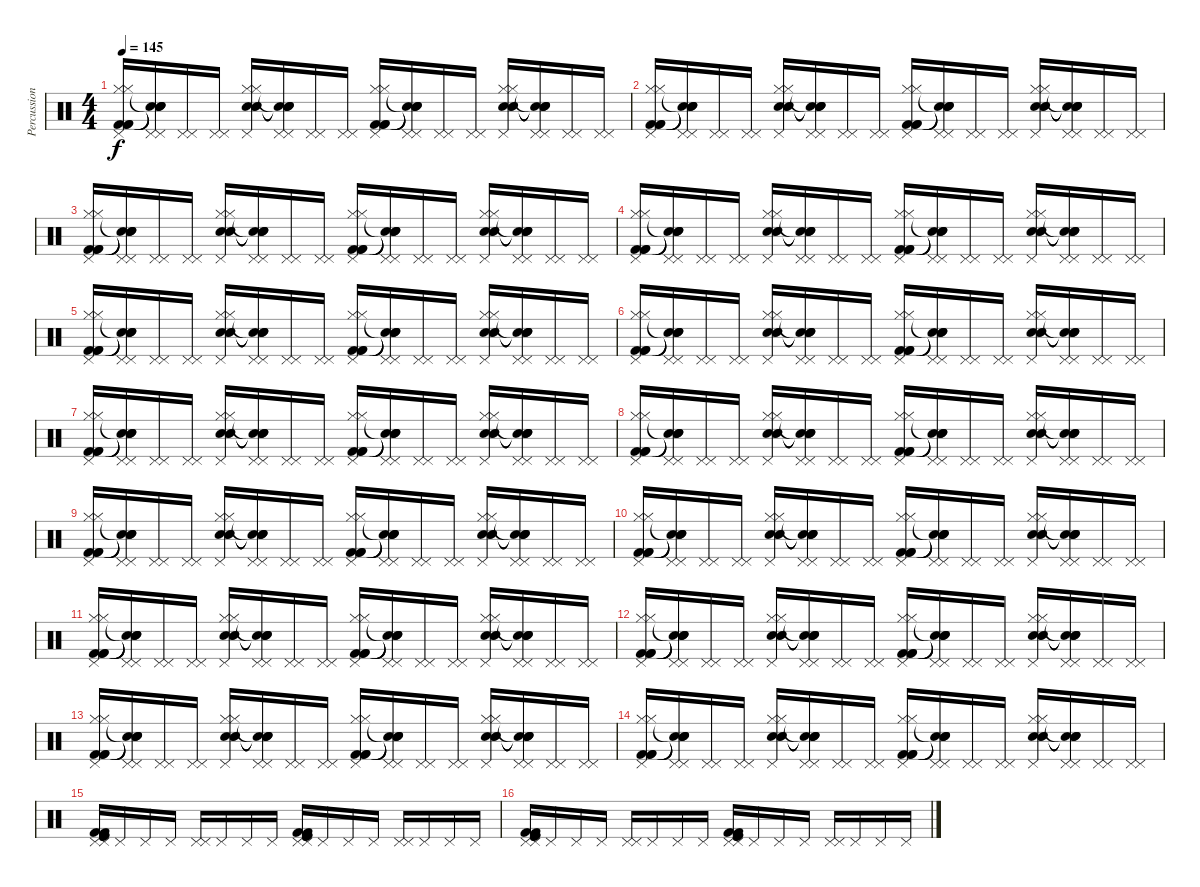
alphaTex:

\track ("Percussion" "Percussion") {instrument percussion}
\staff {score}
\articulation defaults
\ts (4 4)
\tempo 145
\clef neutral
\ks c
("Pedal Hi-Hat (hit)" "Hi-Hat (closed)" "Hi-Hat (closed)" "Kick (hit) 2" "Kick (hit) 2" "Kick (hit) 2").16{dy f} ("Pedal Hi-Hat (hit)" "Pedal Hi-Hat (hit)" "Snare (hit)"{t} "Snare (hit)"{t} "Snare (hit)"{t} "Snare (hit)"{t}).16 ("Pedal Hi-Hat (hit)" "Pedal Hi-Hat (hit)").16 ("Pedal Hi-Hat (hit)" "Pedal Hi-Hat (hit)").16 ("Pedal Hi-Hat (hit)" "Hi-Hat (closed)" "Hi-Hat (closed)" "Snare (hit) 2" "Snare (hit) 2" "Snare (hit) 2").16 ("Pedal Hi-Hat (hit)" "Pedal Hi-Hat (hit)" "Snare (hit)"{t} "Snare (hit)"{t} "Snare (hit)"{t} "Snare (hit)"{t}).16 ("Pedal Hi-Hat (hit)" "Pedal Hi-Hat (hit)").16 ("Pedal Hi-Hat (hit)" "Pedal Hi-Hat (hit)").16 ("Pedal Hi-Hat (hit)" "Hi-Hat (closed)" "Hi-Hat (closed)" "Kick (hit) 2" "Kick (hit) 2" "Kick (hit) 2").16 ("Pedal Hi-Hat (hit)" "Pedal Hi-Hat (hit)" "Snare (hit)"{t} "Snare (hit)"{t} "Snare (hit)"{t} "Snare (hit)"{t}).16 ("Pedal Hi-Hat (hit)" "Pedal Hi-Hat (hit)").16 ("Pedal Hi-Hat (hit)" "Pedal Hi-Hat (hit)").16 ("Pedal Hi-Hat (hit)" "Hi-Hat (closed)" "Hi-Hat (closed)" "Snare (hit) 2" "Snare (hit) 2" "Snare (hit) 2").16 ("Pedal Hi-Hat (hit)" "Pedal Hi-Hat (hit)" "Snare (hit)"{t} "Snare (hit)"{t} "Snare (hit)"{t} "Snare (hit)"{t}).16 ("Pedal Hi-Hat (hit)" "Pedal Hi-Hat (hit)").16 ("Pedal Hi-Hat (hit)" "Pedal Hi-Hat (hit)").16 |
("Pedal Hi-Hat (hit)" "Hi-Hat (closed)" "Hi-Hat (closed)" "Kick (hit) 2" "Kick (hit) 2" "Kick (hit) 2").16 ("Pedal Hi-Hat (hit)" "Pedal Hi-Hat (hit)" "Snare (hit)"{t} "Snare (hit)"{t} "Snare (hit)"{t} "Snare (hit)"{t}).16 ("Pedal Hi-Hat (hit)" "Pedal Hi-Hat (hit)").16 ("Pedal Hi-Hat (hit)" "Pedal Hi-Hat (hit)").16 ("Pedal Hi-Hat (hit)" "Hi-Hat (closed)" "Hi-Hat (closed)" "Snare (hit) 2" "Snare (hit) 2" "Snare (hit) 2").16 ("Pedal Hi-Hat (hit)" "Pedal Hi-Hat (hit)" "Snare (hit)"{t} "Snare (hit)"{t} "Snare (hit)"{t} "Snare (hit)"{t}).16 ("Pedal Hi-Hat (hit)" "Pedal Hi-Hat (hit)").16 ("Pedal Hi-Hat (hit)" "Pedal Hi-Hat (hit)").16 ("Pedal Hi-Hat (hit)" "Hi-Hat (closed)" "Hi-Hat (closed)" "Kick (hit) 2" "Kick (hit) 2" "Kick (hit) 2").16 ("Pedal Hi-Hat (hit)" "Pedal Hi-Hat (hit)" "Snare (hit)"{t} "Snare (hit)"{t} "Snare (hit)"{t} "Snare (hit)"{t}).16 ("Pedal Hi-Hat (hit)" "Pedal Hi-Hat (hit)").16 ("Pedal Hi-Hat (hit)" "Pedal Hi-Hat (hit)").16 ("Pedal Hi-Hat (hit)" "Hi-Hat (closed)" "Hi-Hat (closed)" "Snare (hit) 2" "Snare (hit) 2" "Snare (hit) 2").16 ("Pedal Hi-Hat (hit)" "Pedal Hi-Hat (hit)" "Snare (hit)"{t} "Snare (hit)"{t} "Snare (hit)"{t} "Snare (hit)"{t}).16 ("Pedal Hi-Hat (hit)" "Pedal Hi-Hat (hit)").16 ("Pedal Hi-Hat (hit)" "Pedal Hi-Hat (hit)").16 |
("Pedal Hi-Hat (hit)" "Hi-Hat (closed)" "Hi-Hat (closed)" "Kick (hit) 2" "Kick (hit) 2" "Kick (hit) 2").16 ("Pedal Hi-Hat (hit)" "Pedal Hi-Hat (hit)" "Snare (hit)"{t} "Snare (hit)"{t} "Snare (hit)"{t} "Snare (hit)"{t}).16 ("Pedal Hi-Hat (hit)" "Pedal Hi-Hat (hit)").16 ("Pedal Hi-Hat (hit)" "Pedal Hi-Hat (hit)").16 ("Pedal Hi-Hat (hit)" "Hi-Hat (closed)" "Hi-Hat (closed)" "Snare (hit) 2" "Snare (hit) 2" "Snare (hit) 2").16 ("Pedal Hi-Hat (hit)" "Pedal Hi-Hat (hit)" "Snare (hit)"{t} "Snare (hit)"{t} "Snare (hit)"{t} "Snare (hit)"{t}).16 ("Pedal Hi-Hat (hit)" "Pedal Hi-Hat (hit)").16 ("Pedal Hi-Hat (hit)" "Pedal Hi-Hat (hit)").16 ("Pedal Hi-Hat (hit)" "Hi-Hat (closed)" "Hi-Hat (closed)" "Kick (hit) 2" "Kick (hit) 2" "Kick (hit) 2").16 ("Pedal Hi-Hat (hit)" "Pedal Hi-Hat (hit)" "Snare (hit)"{t} "Snare (hit)"{t} "Snare (hit)"{t} "Snare (hit)"{t}).16 ("Pedal Hi-Hat (hit)" "Pedal Hi-Hat (hit)").16 ("Pedal Hi-Hat (hit)" "Pedal Hi-Hat (hit)").16 ("Pedal Hi-Hat (hit)" "Hi-Hat (closed)" "Hi-Hat (closed)" "Snare (hit) 2" "Snare (hit) 2" "Snare (hit) 2").16 ("Pedal Hi-Hat (hit)" "Pedal Hi-Hat (hit)" "Snare (hit)"{t} "Snare (hit)"{t} "Snare (hit)"{t} "Snare (hit)"{t}).16 ("Pedal Hi-Hat (hit)" "Pedal Hi-Hat (hit)").16 ("Pedal Hi-Hat (hit)" "Pedal Hi-Hat (hit)").16 |
("Pedal Hi-Hat (hit)" "Hi-Hat (closed)" "Hi-Hat (closed)" "Kick (hit) 2" "Kick (hit) 2" "Kick (hit) 2").16 ("Pedal Hi-Hat (hit)" "Pedal Hi-Hat (hit)" "Snare (hit)"{t} "Snare (hit)"{t} "Snare (hit)"{t} "Snare (hit)"{t}).16 ("Pedal Hi-Hat (hit)" "Pedal Hi-Hat (hit)").16 ("Pedal Hi-Hat (hit)" "Pedal Hi-Hat (hit)").16 ("Pedal Hi-Hat (hit)" "Hi-Hat (closed)" "Hi-Hat (closed)" "Snare (hit) 2" "Snare (hit) 2" "Snare (hit) 2").16 ("Pedal Hi-Hat (hit)" "Pedal Hi-Hat (hit)" "Snare (hit)"{t} "Snare (hit)"{t} "Snare (hit)"{t} "Snare (hit)"{t}).16 ("Pedal Hi-Hat (hit)" "Pedal Hi-Hat (hit)").16 ("Pedal Hi-Hat (hit)" "Pedal Hi-Hat (hit)").16 ("Pedal Hi-Hat (hit)" "Hi-Hat (closed)" "Hi-Hat (closed)" "Kick (hit) 2" "Kick (hit) 2" "Kick (hit) 2").16 ("Pedal Hi-Hat (hit)" "Pedal Hi-Hat (hit)" "Snare (hit)"{t} "Snare (hit)"{t} "Snare (hit)"{t} "Snare (hit)"{t}).16 ("Pedal Hi-Hat (hit)" "Pedal Hi-Hat (hit)").16 ("Pedal Hi-Hat (hit)" "Pedal Hi-Hat (hit)").16 ("Pedal Hi-Hat (hit)" "Hi-Hat (closed)" "Hi-Hat (closed)" "Snare (hit) 2" "Snare (hit) 2" "Snare (hit) 2").16 ("Pedal Hi-Hat (hit)" "Pedal Hi-Hat (hit)" "Snare (hit)"{t} "Snare (hit)"{t} "Snare (hit)"{t} "Snare (hit)"{t}).16 ("Pedal Hi-Hat (hit)" "Pedal Hi-Hat (hit)").16 ("Pedal Hi-Hat (hit)" "Pedal Hi-Hat (hit)").16 |
("Pedal Hi-Hat (hit)" "Hi-Hat (closed)" "Hi-Hat (closed)" "Kick (hit) 2" "Kick (hit) 2" "Kick (hit) 2").16 ("Pedal Hi-Hat (hit)" "Pedal Hi-Hat (hit)" "Snare (hit)"{t} "Snare (hit)"{t} "Snare (hit)"{t} "Snare (hit)"{t}).16 ("Pedal Hi-Hat (hit)" "Pedal Hi-Hat (hit)").16 ("Pedal Hi-Hat (hit)" "Pedal Hi-Hat (hit)").16 ("Pedal Hi-Hat (hit)" "Hi-Hat (closed)" "Hi-Hat (closed)" "Snare (hit) 2" "Snare (hit) 2" "Snare (hit) 2").16 ("Pedal Hi-Hat (hit)" "Pedal Hi-Hat (hit)" "Snare (hit)"{t} "Snare (hit)"{t} "Snare (hit)"{t} "Snare (hit)"{t}).16 ("Pedal Hi-Hat (hit)" "Pedal Hi-Hat (hit)").16 ("Pedal Hi-Hat (hit)" "Pedal Hi-Hat (hit)").16 ("Pedal Hi-Hat (hit)" "Hi-Hat (closed)" "Hi-Hat (closed)" "Kick (hit) 2" "Kick (hit) 2" "Kick (hit) 2").16 ("Pedal Hi-Hat (hit)" "Pedal Hi-Hat (hit)" "Snare (hit)"{t} "Snare (hit)"{t} "Snare (hit)"{t} "Snare (hit)"{t}).16 ("Pedal Hi-Hat (hit)" "Pedal Hi-Hat (hit)").16 ("Pedal Hi-Hat (hit)" "Pedal Hi-Hat (hit)").16 ("Pedal Hi-Hat (hit)" "Hi-Hat (closed)" "Hi-Hat (closed)" "Snare (hit) 2" "Snare (hit) 2" "Snare (hit) 2").16 ("Pedal Hi-Hat (hit)" "Pedal Hi-Hat (hit)" "Snare (hit)"{t} "Snare (hit)"{t} "Snare (hit)"{t} "Snare (hit)"{t}).16 ("Pedal Hi-Hat (hit)" "Pedal Hi-Hat (hit)").16 ("Pedal Hi-Hat (hit)" "Pedal Hi-Hat (hit)").16 |
("Pedal Hi-Hat (hit)" "Hi-Hat (closed)" "Hi-Hat (closed)" "Kick (hit) 2" "Kick (hit) 2" "Kick (hit) 2").16 ("Pedal Hi-Hat (hit)" "Pedal Hi-Hat (hit)" "Snare (hit)"{t} "Snare (hit)"{t} "Snare (hit)"{t} "Snare (hit)"{t}).16 ("Pedal Hi-Hat (hit)" "Pedal Hi-Hat (hit)").16 ("Pedal Hi-Hat (hit)" "Pedal Hi-Hat (hit)").16 ("Pedal Hi-Hat (hit)" "Hi-Hat (closed)" "Hi-Hat (closed)" "Snare (hit) 2" "Snare (hit) 2" "Snare (hit) 2").16 ("Pedal Hi-Hat (hit)" "Pedal Hi-Hat (hit)" "Snare (hit)"{t} "Snare (hit)"{t} "Snare (hit)"{t} "Snare (hit)"{t}).16 ("Pedal Hi-Hat (hit)" "Pedal Hi-Hat (hit)").16 ("Pedal Hi-Hat (hit)" "Pedal Hi-Hat (hit)").16 ("Pedal Hi-Hat (hit)" "Hi-Hat (closed)" "Hi-Hat (closed)" "Kick (hit) 2" "Kick (hit) 2" "Kick (hit) 2").16 ("Pedal Hi-Hat (hit)" "Pedal Hi-Hat (hit)" "Snare (hit)"{t} "Snare (hit)"{t} "Snare (hit)"{t} "Snare (hit)"{t}).16 ("Pedal Hi-Hat (hit)" "Pedal Hi-Hat (hit)").16 ("Pedal Hi-Hat (hit)" "Pedal Hi-Hat (hit)").16 ("Pedal Hi-Hat (hit)" "Hi-Hat (closed)" "Hi-Hat (closed)" "Snare (hit) 2" "Snare (hit) 2" "Snare (hit) 2").16 ("Pedal Hi-Hat (hit)" "Pedal Hi-Hat (hit)" "Snare (hit)"{t} "Snare (hit)"{t} "Snare (hit)"{t} "Snare (hit)"{t}).16 ("Pedal Hi-Hat (hit)" "Pedal Hi-Hat (hit)").16 ("Pedal Hi-Hat (hit)" "Pedal Hi-Hat (hit)").16 |
("Pedal Hi-Hat (hit)" "Hi-Hat (closed)" "Hi-Hat (closed)" "Kick (hit) 2" "Kick (hit) 2" "Kick (hit) 2").16 ("Pedal Hi-Hat (hit)" "Pedal Hi-Hat (hit)" "Snare (hit)"{t} "Snare (hit)"{t} "Snare (hit)"{t} "Snare (hit)"{t}).16 ("Pedal Hi-Hat (hit)" "Pedal Hi-Hat (hit)").16 ("Pedal Hi-Hat (hit)" "Pedal Hi-Hat (hit)").16 ("Pedal Hi-Hat (hit)" "Hi-Hat (closed)" "Hi-Hat (closed)" "Snare (hit) 2" "Snare (hit) 2" "Snare (hit) 2").16 ("Pedal Hi-Hat (hit)" "Pedal Hi-Hat (hit)" "Snare (hit)"{t} "Snare (hit)"{t} "Snare (hit)"{t} "Snare (hit)"{t}).16 ("Pedal Hi-Hat (hit)" "Pedal Hi-Hat (hit)").16 ("Pedal Hi-Hat (hit)" "Pedal Hi-Hat (hit)").16 ("Pedal Hi-Hat (hit)" "Hi-Hat (closed)" "Hi-Hat (closed)" "Kick (hit) 2" "Kick (hit) 2" "Kick (hit) 2").16 ("Pedal Hi-Hat (hit)" "Pedal Hi-Hat (hit)" "Snare (hit)"{t} "Snare (hit)"{t} "Snare (hit)"{t} "Snare (hit)"{t}).16 ("Pedal Hi-Hat (hit)" "Pedal Hi-Hat (hit)").16 ("Pedal Hi-Hat (hit)" "Pedal Hi-Hat (hit)").16 ("Pedal Hi-Hat (hit)" "Hi-Hat (closed)" "Hi-Hat (closed)" "Snare (hit) 2" "Snare (hit) 2" "Snare (hit) 2").16 ("Pedal Hi-Hat (hit)" "Pedal Hi-Hat (hit)" "Snare (hit)"{t} "Snare (hit)"{t} "Snare (hit)"{t} "Snare (hit)"{t}).16 ("Pedal Hi-Hat (hit)" "Pedal Hi-Hat (hit)").16 ("Pedal Hi-Hat (hit)" "Pedal Hi-Hat (hit)").16 |
("Pedal Hi-Hat (hit)" "Hi-Hat (closed)" "Hi-Hat (closed)" "Kick (hit) 2" "Kick (hit) 2" "Kick (hit) 2").16 ("Pedal Hi-Hat (hit)" "Pedal Hi-Hat (hit)" "Snare (hit)"{t} "Snare (hit)"{t} "Snare (hit)"{t} "Snare (hit)"{t}).16 ("Pedal Hi-Hat (hit)" "Pedal Hi-Hat (hit)").16 ("Pedal Hi-Hat (hit)" "Pedal Hi-Hat (hit)").16 ("Pedal Hi-Hat (hit)" "Hi-Hat (closed)" "Hi-Hat (closed)" "Snare (hit) 2" "Snare (hit) 2" "Snare (hit) 2").16 ("Pedal Hi-Hat (hit)" "Pedal Hi-Hat (hit)" "Snare (hit)"{t} "Snare (hit)"{t} "Snare (hit)"{t} "Snare (hit)"{t}).16 ("Pedal Hi-Hat (hit)" "Pedal Hi-Hat (hit)").16 ("Pedal Hi-Hat (hit)" "Pedal Hi-Hat (hit)").16 ("Pedal Hi-Hat (hit)" "Hi-Hat (closed)" "Hi-Hat (closed)" "Kick (hit) 2" "Kick (hit) 2" "Kick (hit) 2").16 ("Pedal Hi-Hat (hit)" "Pedal Hi-Hat (hit)" "Snare (hit)"{t} "Snare (hit)"{t} "Snare (hit)"{t} "Snare (hit)"{t}).16 ("Pedal Hi-Hat (hit)" "Pedal Hi-Hat (hit)").16 ("Pedal Hi-Hat (hit)" "Pedal Hi-Hat (hit)").16 ("Pedal Hi-Hat (hit)" "Hi-Hat (closed)" "Hi-Hat (closed)" "Snare (hit) 2" "Snare (hit) 2" "Snare (hit) 2").16 ("Pedal Hi-Hat (hit)" "Pedal Hi-Hat (hit)" "Snare (hit)"{t} "Snare (hit)"{t} "Snare (hit)"{t} "Snare (hit)"{t}).16 ("Pedal Hi-Hat (hit)" "Pedal Hi-Hat (hit)").16 ("Pedal Hi-Hat (hit)" "Pedal Hi-Hat (hit)").16 |
("Pedal Hi-Hat (hit)" "Hi-Hat (closed)" "Hi-Hat (closed)" "Kick (hit) 2" "Kick (hit) 2" "Kick (hit) 2").16 ("Pedal Hi-Hat (hit)" "Pedal Hi-Hat (hit)" "Snare (hit)"{t} "Snare (hit)"{t} "Snare (hit)"{t} "Snare (hit)"{t}).16 ("Pedal Hi-Hat (hit)" "Pedal Hi-Hat (hit)").16 ("Pedal Hi-Hat (hit)" "Pedal Hi-Hat (hit)").16 ("Pedal Hi-Hat (hit)" "Hi-Hat (closed)" "Hi-Hat (closed)" "Snare (hit) 2" "Snare (hit) 2" "Snare (hit) 2").16 ("Pedal Hi-Hat (hit)" "Pedal Hi-Hat (hit)" "Snare (hit)"{t} "Snare (hit)"{t} "Snare (hit)"{t} "Snare (hit)"{t}).16 ("Pedal Hi-Hat (hit)" "Pedal Hi-Hat (hit)").16 ("Pedal Hi-Hat (hit)" "Pedal Hi-Hat (hit)").16 ("Pedal Hi-Hat (hit)" "Hi-Hat (closed)" "Hi-Hat (closed)" "Kick (hit) 2" "Kick (hit) 2" "Kick (hit) 2").16 ("Pedal Hi-Hat (hit)" "Pedal Hi-Hat (hit)" "Snare (hit)"{t} "Snare (hit)"{t} "Snare (hit)"{t} "Snare (hit)"{t}).16 ("Pedal Hi-Hat (hit)" "Pedal Hi-Hat (hit)").16 ("Pedal Hi-Hat (hit)" "Pedal Hi-Hat (hit)").16 ("Pedal Hi-Hat (hit)" "Hi-Hat (closed)" "Hi-Hat (closed)" "Snare (hit) 2" "Snare (hit) 2" "Snare (hit) 2").16 ("Pedal Hi-Hat (hit)" "Pedal Hi-Hat (hit)" "Snare (hit)"{t} "Snare (hit)"{t} "Snare (hit)"{t} "Snare (hit)"{t}).16 ("Pedal Hi-Hat (hit)" "Pedal Hi-Hat (hit)").16 ("Pedal Hi-Hat (hit)" "Pedal Hi-Hat (hit)").16 |
("Pedal Hi-Hat (hit)" "Hi-Hat (closed)" "Hi-Hat (closed)" "Kick (hit) 2" "Kick (hit) 2" "Kick (hit) 2").16 ("Pedal Hi-Hat (hit)" "Pedal Hi-Hat (hit)" "Snare (hit)"{t} "Snare (hit)"{t} "Snare (hit)"{t} "Snare (hit)"{t}).16 ("Pedal Hi-Hat (hit)" "Pedal Hi-Hat (hit)").16 ("Pedal Hi-Hat (hit)" "Pedal Hi-Hat (hit)").16 ("Pedal Hi-Hat (hit)" "Hi-Hat (closed)" "Hi-Hat (closed)" "Snare (hit) 2" "Snare (hit) 2" "Snare (hit) 2").16 ("Pedal Hi-Hat (hit)" "Pedal Hi-Hat (hit)" "Snare (hit)"{t} "Snare (hit)"{t} "Snare (hit)"{t} "Snare (hit)"{t}).16 ("Pedal Hi-Hat (hit)" "Pedal Hi-Hat (hit)").16 ("Pedal Hi-Hat (hit)" "Pedal Hi-Hat (hit)").16 ("Pedal Hi-Hat (hit)" "Hi-Hat (closed)" "Hi-Hat (closed)" "Kick (hit) 2" "Kick (hit) 2" "Kick (hit) 2").16 ("Pedal Hi-Hat (hit)" "Pedal Hi-Hat (hit)" "Snare (hit)"{t} "Snare (hit)"{t} "Snare (hit)"{t} "Snare (hit)"{t}).16 ("Pedal Hi-Hat (hit)" "Pedal Hi-Hat (hit)").16 ("Pedal Hi-Hat (hit)" "Pedal Hi-Hat (hit)").16 ("Pedal Hi-Hat (hit)" "Hi-Hat (closed)" "Hi-Hat (closed)" "Snare (hit) 2" "Snare (hit) 2" "Snare (hit) 2").16 ("Pedal Hi-Hat (hit)" "Pedal Hi-Hat (hit)" "Snare (hit)"{t} "Snare (hit)"{t} "Snare (hit)"{t} "Snare (hit)"{t}).16 ("Pedal Hi-Hat (hit)" "Pedal Hi-Hat (hit)").16 ("Pedal Hi-Hat (hit)" "Pedal Hi-Hat (hit)").16 |
("Pedal Hi-Hat (hit)" "Hi-Hat (closed)" "Hi-Hat (closed)" "Kick (hit) 2" "Kick (hit) 2" "Kick (hit) 2").16 ("Pedal Hi-Hat (hit)" "Pedal Hi-Hat (hit)" "Snare (hit)"{t} "Snare (hit)"{t} "Snare (hit)"{t} "Snare (hit)"{t}).16 ("Pedal Hi-Hat (hit)" "Pedal Hi-Hat (hit)").16 ("Pedal Hi-Hat (hit)" "Pedal Hi-Hat (hit)").16 ("Pedal Hi-Hat (hit)" "Hi-Hat (closed)" "Hi-Hat (closed)" "Snare (hit) 2" "Snare (hit) 2" "Snare (hit) 2").16 ("Pedal Hi-Hat (hit)" "Pedal Hi-Hat (hit)" "Snare (hit)"{t} "Snare (hit)"{t} "Snare (hit)"{t} "Snare (hit)"{t}).16 ("Pedal Hi-Hat (hit)" "Pedal Hi-Hat (hit)").16 ("Pedal Hi-Hat (hit)" "Pedal Hi-Hat (hit)").16 ("Pedal Hi-Hat (hit)" "Hi-Hat (closed)" "Hi-Hat (closed)" "Kick (hit) 2" "Kick (hit) 2" "Kick (hit) 2").16 ("Pedal Hi-Hat (hit)" "Pedal Hi-Hat (hit)" "Snare (hit)"{t} "Snare (hit)"{t} "Snare (hit)"{t} "Snare (hit)"{t}).16 ("Pedal Hi-Hat (hit)" "Pedal Hi-Hat (hit)").16 ("Pedal Hi-Hat (hit)" "Pedal Hi-Hat (hit)").16 ("Pedal Hi-Hat (hit)" "Hi-Hat (closed)" "Hi-Hat (closed)" "Snare (hit) 2" "Snare (hit) 2" "Snare (hit) 2").16 ("Pedal Hi-Hat (hit)" "Pedal Hi-Hat (hit)" "Snare (hit)"{t} "Snare (hit)"{t} "Snare (hit)"{t} "Snare (hit)"{t}).16 ("Pedal Hi-Hat (hit)" "Pedal Hi-Hat (hit)").16 ("Pedal Hi-Hat (hit)" "Pedal Hi-Hat (hit)").16 |
("Pedal Hi-Hat (hit)" "Hi-Hat (closed)" "Hi-Hat (closed)" "Kick (hit) 2" "Kick (hit) 2" "Kick (hit) 2").16 ("Pedal Hi-Hat (hit)" "Pedal Hi-Hat (hit)" "Snare (hit)"{t} "Snare (hit)"{t} "Snare (hit)"{t} "Snare (hit)"{t}).16 ("Pedal Hi-Hat (hit)" "Pedal Hi-Hat (hit)").16 ("Pedal Hi-Hat (hit)" "Pedal Hi-Hat (hit)").16 ("Pedal Hi-Hat (hit)" "Hi-Hat (closed)" "Hi-Hat (closed)" "Snare (hit) 2" "Snare (hit) 2" "Snare (hit) 2").16 ("Pedal Hi-Hat (hit)" "Pedal Hi-Hat (hit)" "Snare (hit)"{t} "Snare (hit)"{t} "Snare (hit)"{t} "Snare (hit)"{t}).16 ("Pedal Hi-Hat (hit)" "Pedal Hi-Hat (hit)").16 ("Pedal Hi-Hat (hit)" "Pedal Hi-Hat (hit)").16 ("Pedal Hi-Hat (hit)" "Hi-Hat (closed)" "Hi-Hat (closed)" "Kick (hit) 2" "Kick (hit) 2" "Kick (hit) 2").16 ("Pedal Hi-Hat (hit)" "Pedal Hi-Hat (hit)" "Snare (hit)"{t} "Snare (hit)"{t} "Snare (hit)"{t} "Snare (hit)"{t}).16 ("Pedal Hi-Hat (hit)" "Pedal Hi-Hat (hit)").16 ("Pedal Hi-Hat (hit)" "Pedal Hi-Hat (hit)").16 ("Pedal Hi-Hat (hit)" "Hi-Hat (closed)" "Hi-Hat (closed)" "Snare (hit) 2" "Snare (hit) 2" "Snare (hit) 2").16 ("Pedal Hi-Hat (hit)" "Pedal Hi-Hat (hit)" "Snare (hit)"{t} "Snare (hit)"{t} "Snare (hit)"{t} "Snare (hit)"{t}).16 ("Pedal Hi-Hat (hit)" "Pedal Hi-Hat (hit)").16 ("Pedal Hi-Hat (hit)" "Pedal Hi-Hat (hit)").16 |
("Pedal Hi-Hat (hit)" "Hi-Hat (closed)" "Hi-Hat (closed)" "Kick (hit) 2" "Kick (hit) 2" "Kick (hit) 2").16 ("Pedal Hi-Hat (hit)" "Pedal Hi-Hat (hit)" "Snare (hit)"{t} "Snare (hit)"{t} "Snare (hit)"{t} "Snare (hit)"{t}).16 ("Pedal Hi-Hat (hit)" "Pedal Hi-Hat (hit)").16 ("Pedal Hi-Hat (hit)" "Pedal Hi-Hat (hit)").16 ("Pedal Hi-Hat (hit)" "Hi-Hat (closed)" "Hi-Hat (closed)" "Snare (hit) 2" "Snare (hit) 2" "Snare (hit) 2").16 ("Pedal Hi-Hat (hit)" "Pedal Hi-Hat (hit)" "Snare (hit)"{t} "Snare (hit)"{t} "Snare (hit)"{t} "Snare (hit)"{t}).16 ("Pedal Hi-Hat (hit)" "Pedal Hi-Hat (hit)").16 ("Pedal Hi-Hat (hit)" "Pedal Hi-Hat (hit)").16 ("Pedal Hi-Hat (hit)" "Hi-Hat (closed)" "Hi-Hat (closed)" "Kick (hit) 2" "Kick (hit) 2" "Kick (hit) 2").16 ("Pedal Hi-Hat (hit)" "Pedal Hi-Hat (hit)" "Snare (hit)"{t} "Snare (hit)"{t} "Snare (hit)"{t} "Snare (hit)"{t}).16 ("Pedal Hi-Hat (hit)" "Pedal Hi-Hat (hit)").16 ("Pedal Hi-Hat (hit)" "Pedal Hi-Hat (hit)").16 ("Pedal Hi-Hat (hit)" "Hi-Hat (closed)" "Hi-Hat (closed)" "Snare (hit) 2" "Snare (hit) 2" "Snare (hit) 2").16 ("Pedal Hi-Hat (hit)" "Pedal Hi-Hat (hit)" "Snare (hit)"{t} "Snare (hit)"{t} "Snare (hit)"{t} "Snare (hit)"{t}).16 ("Pedal Hi-Hat (hit)" "Pedal Hi-Hat (hit)").16 ("Pedal Hi-Hat (hit)" "Pedal Hi-Hat (hit)").16 |
("Pedal Hi-Hat (hit)" "Hi-Hat (closed)" "Hi-Hat (closed)" "Kick (hit) 2" "Kick (hit) 2" "Kick (hit) 2").16 ("Pedal Hi-Hat (hit)" "Pedal Hi-Hat (hit)" "Snare (hit)"{t} "Snare (hit)"{t} "Snare (hit)"{t} "Snare (hit)"{t}).16 ("Pedal Hi-Hat (hit)" "Pedal Hi-Hat (hit)").16 ("Pedal Hi-Hat (hit)" "Pedal Hi-Hat (hit)").16 ("Pedal Hi-Hat (hit)" "Hi-Hat (closed)" "Hi-Hat (closed)" "Snare (hit) 2" "Snare (hit) 2" "Snare (hit) 2").16 ("Pedal Hi-Hat (hit)" "Pedal Hi-Hat (hit)" "Snare (hit)"{t} "Snare (hit)"{t} "Snare (hit)"{t} "Snare (hit)"{t}).16 ("Pedal Hi-Hat (hit)" "Pedal Hi-Hat (hit)").16 ("Pedal Hi-Hat (hit)" "Pedal Hi-Hat (hit)").16 ("Pedal Hi-Hat (hit)" "Hi-Hat (closed)" "Hi-Hat (closed)" "Kick (hit) 2" "Kick (hit) 2" "Kick (hit) 2").16 ("Pedal Hi-Hat (hit)" "Pedal Hi-Hat (hit)" "Snare (hit)"{t} "Snare (hit)"{t} "Snare (hit)"{t} "Snare (hit)"{t}).16 ("Pedal Hi-Hat (hit)" "Pedal Hi-Hat (hit)").16 ("Pedal Hi-Hat (hit)" "Pedal Hi-Hat (hit)").16 ("Pedal Hi-Hat (hit)" "Hi-Hat (closed)" "Hi-Hat (closed)" "Snare (hit) 2" "Snare (hit) 2" "Snare (hit) 2").16 ("Pedal Hi-Hat (hit)" "Pedal Hi-Hat (hit)" "Snare (hit)"{t} "Snare (hit)"{t} "Snare (hit)"{t} "Snare (hit)"{t}).16 ("Pedal Hi-Hat (hit)" "Pedal Hi-Hat (hit)").16 ("Pedal Hi-Hat (hit)" "Pedal Hi-Hat (hit)").16 |
("Pedal Hi-Hat (hit)" "Pedal Hi-Hat (hit)" "Kick (hit)" "Kick (hit)" "Kick (hit) 2" "Kick (hit) 2").16 "Pedal Hi-Hat (hit)".16 "Pedal Hi-Hat (hit)".16 "Pedal Hi-Hat (hit)".16 ("Pedal Hi-Hat (hit)" "Pedal Hi-Hat (hit)").16 "Pedal Hi-Hat (hit)".16 "Pedal Hi-Hat (hit)".16 "Pedal Hi-Hat (hit)".16 ("Pedal Hi-Hat (hit)" "Pedal Hi-Hat (hit)" "Kick (hit)" "Kick (hit)" "Kick (hit) 2" "Kick (hit) 2").16 "Pedal Hi-Hat (hit)".16 "Pedal Hi-Hat (hit)".16 "Pedal Hi-Hat (hit)".16 ("Pedal Hi-Hat (hit)" "Pedal Hi-Hat (hit)").16 "Pedal Hi-Hat (hit)".16 "Pedal Hi-Hat (hit)".16 "Pedal Hi-Hat (hit)".16 |
("Pedal Hi-Hat (hit)" "Pedal Hi-Hat (hit)" "Kick (hit)" "Kick (hit)" "Kick (hit) 2" "Kick (hit) 2").16 "Pedal Hi-Hat (hit)".16 "Pedal Hi-Hat (hit)".16 "Pedal Hi-Hat (hit)".16 ("Pedal Hi-Hat (hit)" "Pedal Hi-Hat (hit)").16 "Pedal Hi-Hat (hit)".16 "Pedal Hi-Hat (hit)".16 "Pedal Hi-Hat (hit)".16 ("Pedal Hi-Hat (hit)" "Pedal Hi-Hat (hit)" "Kick (hit)" "Kick (hit)" "Kick (hit) 2" "Kick (hit) 2").16 "Pedal Hi-Hat (hit)".16 "Pedal Hi-Hat (hit)".16 "Pedal Hi-Hat (hit)".16 ("Pedal Hi-Hat (hit)" "Pedal Hi-Hat (hit)").16 "Pedal Hi-Hat (hit)".16 "Pedal Hi-Hat (hit)".16 "Pedal Hi-Hat (hit)".16
